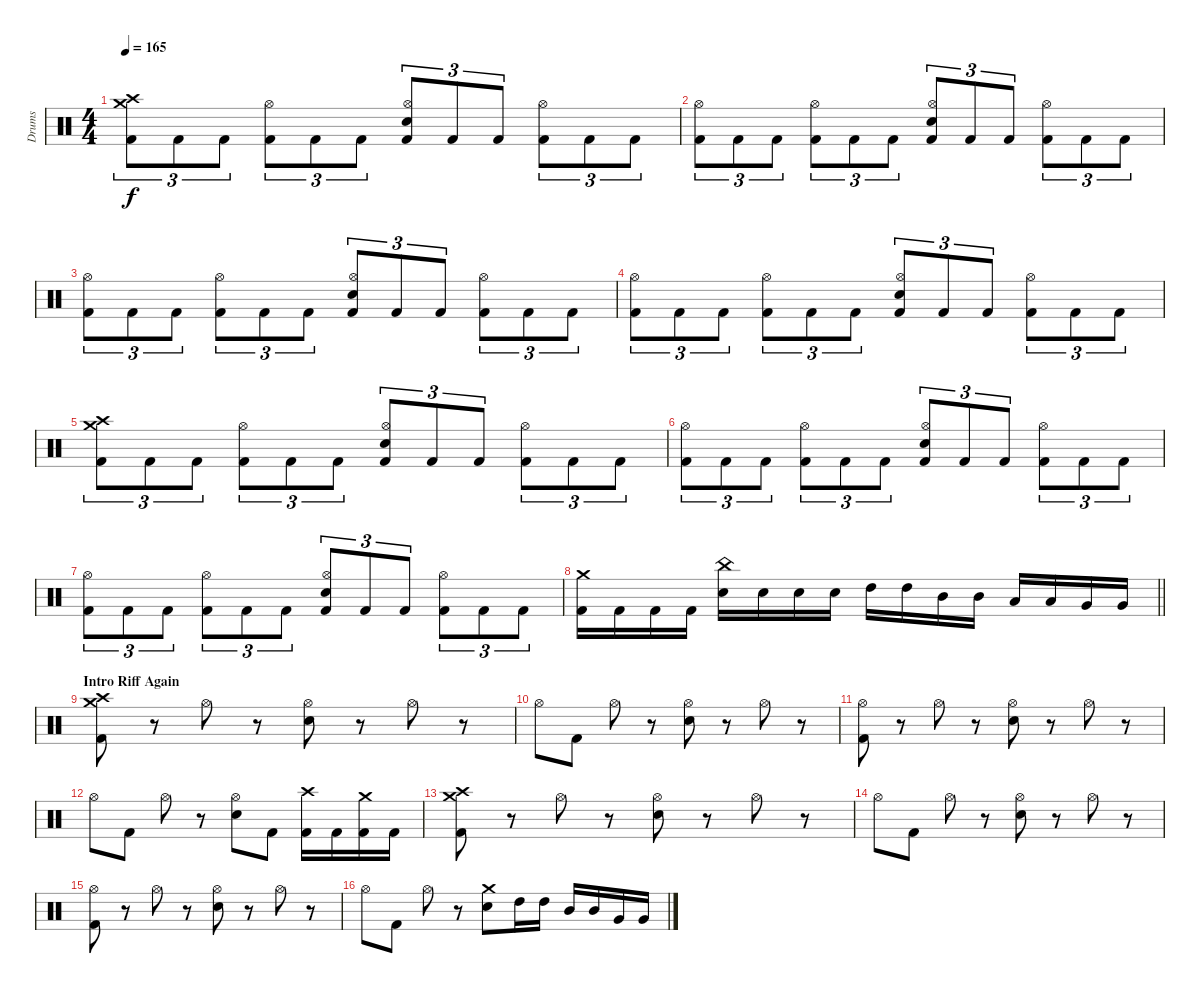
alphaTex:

\track ("Drums" "Drums") {instrument percussion}
\staff {score}
\articulation defaults
\ts (4 4)
\tempo 165
\clef neutral
\ks c
("Crash medium (hit)" "Crash high (hit)" "Kick (hit) 2").8{tu (3 2) dy f} "Kick (hit) 2".8{tu (3 2)} "Kick (hit) 2".8{tu (3 2)} ("Hi-Hat (open)" "Kick (hit) 2").8{tu (3 2)} "Kick (hit) 2".8{tu (3 2)} "Kick (hit) 2".8{tu (3 2)} ("Hi-Hat (open)" "Electric Snare (hit)" "Kick (hit) 2").8{tu (3 2)} "Kick (hit) 2".8{tu (3 2)} "Kick (hit) 2".8{tu (3 2)} ("Hi-Hat (open)" "Kick (hit) 2").8{tu (3 2)} "Kick (hit) 2".8{tu (3 2)} "Kick (hit) 2".8{tu (3 2)} |
("Hi-Hat (open)" "Kick (hit) 2").8{tu (3 2)} "Kick (hit) 2".8{tu (3 2)} "Kick (hit) 2".8{tu (3 2)} ("Hi-Hat (open)" "Kick (hit) 2").8{tu (3 2)} "Kick (hit) 2".8{tu (3 2)} "Kick (hit) 2".8{tu (3 2)} ("Hi-Hat (open)" "Electric Snare (hit)" "Kick (hit) 2").8{tu (3 2)} "Kick (hit) 2".8{tu (3 2)} "Kick (hit) 2".8{tu (3 2)} ("Hi-Hat (open)" "Kick (hit) 2").8{tu (3 2)} "Kick (hit) 2".8{tu (3 2)} "Kick (hit) 2".8{tu (3 2)} |
("Hi-Hat (open)" "Kick (hit) 2").8{tu (3 2)} "Kick (hit) 2".8{tu (3 2)} "Kick (hit) 2".8{tu (3 2)} ("Hi-Hat (open)" "Kick (hit) 2").8{tu (3 2)} "Kick (hit) 2".8{tu (3 2)} "Kick (hit) 2".8{tu (3 2)} ("Hi-Hat (open)" "Electric Snare (hit)" "Kick (hit) 2").8{tu (3 2)} "Kick (hit) 2".8{tu (3 2)} "Kick (hit) 2".8{tu (3 2)} ("Hi-Hat (open)" "Kick (hit) 2").8{tu (3 2)} "Kick (hit) 2".8{tu (3 2)} "Kick (hit) 2".8{tu (3 2)} |
("Hi-Hat (open)" "Kick (hit) 2").8{tu (3 2)} "Kick (hit) 2".8{tu (3 2)} "Kick (hit) 2".8{tu (3 2)} ("Hi-Hat (open)" "Kick (hit) 2").8{tu (3 2)} "Kick (hit) 2".8{tu (3 2)} "Kick (hit) 2".8{tu (3 2)} ("Hi-Hat (open)" "Electric Snare (hit)" "Kick (hit) 2").8{tu (3 2)} "Kick (hit) 2".8{tu (3 2)} "Kick (hit) 2".8{tu (3 2)} ("Hi-Hat (open)" "Kick (hit) 2").8{tu (3 2)} "Kick (hit) 2".8{tu (3 2)} "Kick (hit) 2".8{tu (3 2)} |
("Crash medium (hit)" "Crash high (hit)" "Kick (hit) 2").8{tu (3 2)} "Kick (hit) 2".8{tu (3 2)} "Kick (hit) 2".8{tu (3 2)} ("Hi-Hat (open)" "Kick (hit) 2").8{tu (3 2)} "Kick (hit) 2".8{tu (3 2)} "Kick (hit) 2".8{tu (3 2)} ("Hi-Hat (open)" "Electric Snare (hit)" "Kick (hit) 2").8{tu (3 2)} "Kick (hit) 2".8{tu (3 2)} "Kick (hit) 2".8{tu (3 2)} ("Hi-Hat (open)" "Kick (hit) 2").8{tu (3 2)} "Kick (hit) 2".8{tu (3 2)} "Kick (hit) 2".8{tu (3 2)} |
("Hi-Hat (open)" "Kick (hit) 2").8{tu (3 2)} "Kick (hit) 2".8{tu (3 2)} "Kick (hit) 2".8{tu (3 2)} ("Hi-Hat (open)" "Kick (hit) 2").8{tu (3 2)} "Kick (hit) 2".8{tu (3 2)} "Kick (hit) 2".8{tu (3 2)} ("Hi-Hat (open)" "Electric Snare (hit)" "Kick (hit) 2").8{tu (3 2)} "Kick (hit) 2".8{tu (3 2)} "Kick (hit) 2".8{tu (3 2)} ("Hi-Hat (open)" "Kick (hit) 2").8{tu (3 2)} "Kick (hit) 2".8{tu (3 2)} "Kick (hit) 2".8{tu (3 2)} |
("Hi-Hat (open)" "Kick (hit) 2").8{tu (3 2)} "Kick (hit) 2".8{tu (3 2)} "Kick (hit) 2".8{tu (3 2)} ("Hi-Hat (open)" "Kick (hit) 2").8{tu (3 2)} "Kick (hit) 2".8{tu (3 2)} "Kick (hit) 2".8{tu (3 2)} ("Hi-Hat (open)" "Electric Snare (hit)" "Kick (hit) 2").8{tu (3 2)} "Kick (hit) 2".8{tu (3 2)} "Kick (hit) 2".8{tu (3 2)} ("Hi-Hat (open)" "Kick (hit) 2").8{tu (3 2)} "Kick (hit) 2".8{tu (3 2)} "Kick (hit) 2".8{tu (3 2)} |
\barLineRight lightlight
("Crash medium (hit)" "Kick (hit) 2").16 "Kick (hit) 2".16 "Kick (hit) 2".16 "Kick (hit) 2".16 ("China (hit)" "Electric Snare (hit)").16 "Electric Snare (hit)".16 "Electric Snare (hit)".16 "Electric Snare (hit)".16 "High Tom (hit)".16 "High Tom (hit)".16 "Mid Tom (hit)".16 "Mid Tom (hit)".16 "Low Tom (hit)".16 "Low Tom (hit)".16 "Very Low Tom (hit)".16 "Very Low Tom (hit)".16 |
\section ("" "Intro Riff Again")
("Crash medium (hit)" "Crash high (hit)" "Kick (hit) 2").8 r.8 "Hi-Hat (open)".8 r.8 ("Hi-Hat (open)" "Electric Snare (hit)").8 r.8 "Hi-Hat (open)".8 r.8 |
"Hi-Hat (open)".8 "Kick (hit) 2".8 "Hi-Hat (open)".8 r.8 ("Hi-Hat (open)" "Electric Snare (hit)").8 r.8 "Hi-Hat (open)".8 r.8 |
("Hi-Hat (open)" "Kick (hit) 2").8 r.8 "Hi-Hat (open)".8 r.8 ("Hi-Hat (open)" "Electric Snare (hit)").8 r.8 "Hi-Hat (open)".8 r.8 |
"Hi-Hat (open)".8 "Kick (hit) 2".8 "Hi-Hat (open)".8 r.8 ("Hi-Hat (open)" "Electric Snare (hit)").8 "Kick (hit) 2".8 ("Crash high (hit)" "Kick (hit) 2").16 "Kick (hit) 2".16 ("Crash medium (hit)" "Kick (hit) 2").16 "Kick (hit) 2".16 |
("Crash medium (hit)" "Crash high (hit)" "Kick (hit) 2").8 r.8 "Hi-Hat (open)".8 r.8 ("Hi-Hat (open)" "Electric Snare (hit)").8 r.8 "Hi-Hat (open)".8 r.8 |
"Hi-Hat (open)".8 "Kick (hit) 2".8 "Hi-Hat (open)".8 r.8 ("Hi-Hat (open)" "Electric Snare (hit)").8 r.8 "Hi-Hat (open)".8 r.8 |
("Hi-Hat (open)" "Kick (hit) 2").8 r.8 "Hi-Hat (open)".8 r.8 ("Hi-Hat (open)" "Electric Snare (hit)").8 r.8 "Hi-Hat (open)".8 r.8 |
"Hi-Hat (open)".8 "Kick (hit) 2".8 "Hi-Hat (open)".8 r.8 ("Crash medium (hit)" "Electric Snare (hit)").8 "High Tom (hit)".16 "High Tom (hit)".16 "Mid Tom (hit)".16 "Mid Tom (hit)".16 "Very Low Tom (hit)".16 "Very Low Tom (hit)".16
